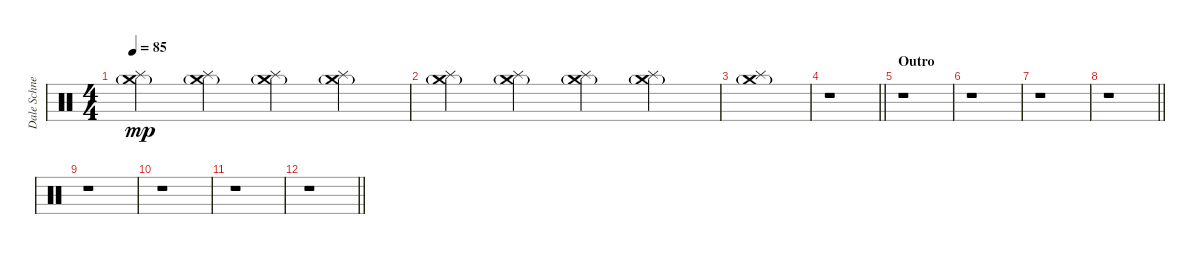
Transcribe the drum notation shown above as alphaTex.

\track ("Dale Schnettler (Drums)" "Dale Schne") {instrument percussion}
\staff {score}
\articulation defaults
\ts (4 4)
\tempo 85
\clef neutral
\ks c
("Splash (hit)" "Crash medium (hit)"{g}).4{dy mp} ("Splash (hit)" "Crash medium (hit)"{g}).4 ("Splash (hit)" "Crash medium (hit)"{g}).4 ("Splash (hit)" "Crash medium (hit)"{g}).4 |
("Splash (hit)" "Crash medium (hit)"{g}).4 ("Splash (hit)" "Crash medium (hit)"{g}).4 ("Splash (hit)" "Crash medium (hit)"{g}).4 ("Splash (hit)" "Crash medium (hit)"{g}).4 |
("Splash (hit)" "Crash medium (hit)"{g}).1 |
\barLineRight lightlight
r.1 |
\section ("" "Outro")
r.1 |
r.1 |
r.1 |
\barLineRight lightlight
r.1 |
r.1 |
r.1 |
r.1 |
\barLineRight lightlight
r.1
